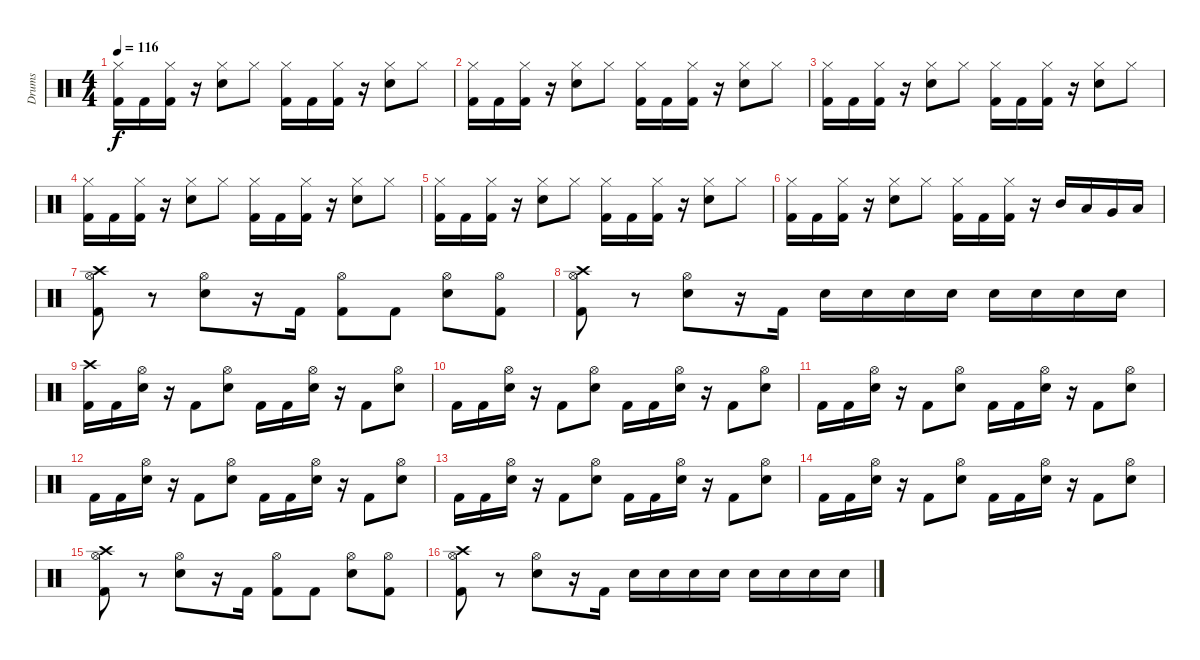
\track ("Drums" "Drums") {instrument percussion}
\staff {score}
\articulation defaults
\ts (4 4)
\tempo 116
\clef neutral
\ks c
("Hi-Hat (closed)" "Kick (hit) 2").16{dy f} "Kick (hit) 2".16 ("Hi-Hat (closed)" "Kick (hit) 2").16 r.16 ("Hi-Hat (closed)" "Snare (hit) 2").8 "Hi-Hat (closed)".8 ("Hi-Hat (closed)" "Kick (hit) 2").16 "Kick (hit) 2".16 ("Hi-Hat (closed)" "Kick (hit) 2").16 r.16 ("Hi-Hat (closed)" "Snare (hit) 2").8 "Hi-Hat (closed)".8 |
("Hi-Hat (closed)" "Kick (hit) 2").16 "Kick (hit) 2".16 ("Hi-Hat (closed)" "Kick (hit) 2").16 r.16 ("Hi-Hat (closed)" "Snare (hit) 2").8 "Hi-Hat (closed)".8 ("Hi-Hat (closed)" "Kick (hit) 2").16 "Kick (hit) 2".16 ("Hi-Hat (closed)" "Kick (hit) 2").16 r.16 ("Hi-Hat (closed)" "Snare (hit) 2").8 "Hi-Hat (closed)".8 |
("Hi-Hat (closed)" "Kick (hit) 2").16 "Kick (hit) 2".16 ("Hi-Hat (closed)" "Kick (hit) 2").16 r.16 ("Hi-Hat (closed)" "Snare (hit) 2").8 "Hi-Hat (closed)".8 ("Hi-Hat (closed)" "Kick (hit) 2").16 "Kick (hit) 2".16 ("Hi-Hat (closed)" "Kick (hit) 2").16 r.16 ("Hi-Hat (closed)" "Snare (hit) 2").8 "Hi-Hat (closed)".8 |
("Hi-Hat (closed)" "Kick (hit) 2").16 "Kick (hit) 2".16 ("Hi-Hat (closed)" "Kick (hit) 2").16 r.16 ("Hi-Hat (closed)" "Snare (hit) 2").8 "Hi-Hat (closed)".8 ("Hi-Hat (closed)" "Kick (hit) 2").16 "Kick (hit) 2".16 ("Hi-Hat (closed)" "Kick (hit) 2").16 r.16 ("Hi-Hat (closed)" "Snare (hit) 2").8 "Hi-Hat (closed)".8 |
("Hi-Hat (closed)" "Kick (hit) 2").16 "Kick (hit) 2".16 ("Hi-Hat (closed)" "Kick (hit) 2").16 r.16 ("Hi-Hat (closed)" "Snare (hit) 2").8 "Hi-Hat (closed)".8 ("Hi-Hat (closed)" "Kick (hit) 2").16 "Kick (hit) 2".16 ("Hi-Hat (closed)" "Kick (hit) 2").16 r.16 ("Hi-Hat (closed)" "Snare (hit) 2").8 "Hi-Hat (closed)".8 |
("Hi-Hat (closed)" "Kick (hit) 2").16 "Kick (hit) 2".16 ("Hi-Hat (closed)" "Kick (hit) 2").16 r.16 ("Hi-Hat (closed)" "Snare (hit) 2").8 "Hi-Hat (closed)".8 ("Hi-Hat (closed)" "Kick (hit) 2").16 "Kick (hit) 2".16 ("Hi-Hat (closed)" "Kick (hit) 2").16 r.16 "Mid Tom (hit)".16 "Low Tom (hit)".16 "Very Low Tom (hit)".16 "Low Floor Tom (hit)".16 |
("Crash high (hit)" "Hi-Hat (open)" "Kick (hit) 2").8 r.8 ("Hi-Hat (open)" "Snare (hit) 2").8 r.16 "Kick (hit) 2".16 ("Hi-Hat (open)" "Kick (hit) 2").8 "Kick (hit) 2".8 ("Hi-Hat (open)" "Snare (hit) 2").8 ("Hi-Hat (open)" "Kick (hit) 2").8 |
("Crash high (hit)" "Hi-Hat (open)" "Kick (hit) 2").8 r.8 ("Hi-Hat (open)" "Snare (hit) 2").8 r.16 "Kick (hit) 2".16 "Snare (hit) 2".16 "Snare (hit) 2".16 "Snare (hit) 2".16 "Snare (hit) 2".16 "Snare (hit) 2".16 "Snare (hit) 2".16 "Snare (hit) 2".16 "Snare (hit) 2".16 |
("Crash high (hit)" "Kick (hit) 2").16 "Kick (hit) 2".16 ("Hi-Hat (open)" "Snare (hit) 2").16 r.16 "Kick (hit) 2".8 ("Hi-Hat (open)" "Snare (hit) 2").8 "Kick (hit) 2".16 "Kick (hit) 2".16 ("Hi-Hat (open)" "Snare (hit) 2").16 r.16 "Kick (hit) 2".8 ("Hi-Hat (open)" "Snare (hit) 2").8 |
"Kick (hit) 2".16 "Kick (hit) 2".16 ("Hi-Hat (open)" "Snare (hit) 2").16 r.16 "Kick (hit) 2".8 ("Hi-Hat (open)" "Snare (hit) 2").8 "Kick (hit) 2".16 "Kick (hit) 2".16 ("Hi-Hat (open)" "Snare (hit) 2").16 r.16 "Kick (hit) 2".8 ("Hi-Hat (open)" "Snare (hit) 2").8 |
"Kick (hit) 2".16 "Kick (hit) 2".16 ("Hi-Hat (open)" "Snare (hit) 2").16 r.16 "Kick (hit) 2".8 ("Hi-Hat (open)" "Snare (hit) 2").8 "Kick (hit) 2".16 "Kick (hit) 2".16 ("Hi-Hat (open)" "Snare (hit) 2").16 r.16 "Kick (hit) 2".8 ("Hi-Hat (open)" "Snare (hit) 2").8 |
"Kick (hit) 2".16 "Kick (hit) 2".16 ("Hi-Hat (open)" "Snare (hit) 2").16 r.16 "Kick (hit) 2".8 ("Hi-Hat (open)" "Snare (hit) 2").8 "Kick (hit) 2".16 "Kick (hit) 2".16 ("Hi-Hat (open)" "Snare (hit) 2").16 r.16 "Kick (hit) 2".8 ("Hi-Hat (open)" "Snare (hit) 2").8 |
"Kick (hit) 2".16 "Kick (hit) 2".16 ("Hi-Hat (open)" "Snare (hit) 2").16 r.16 "Kick (hit) 2".8 ("Hi-Hat (open)" "Snare (hit) 2").8 "Kick (hit) 2".16 "Kick (hit) 2".16 ("Hi-Hat (open)" "Snare (hit) 2").16 r.16 "Kick (hit) 2".8 ("Hi-Hat (open)" "Snare (hit) 2").8 |
"Kick (hit) 2".16 "Kick (hit) 2".16 ("Hi-Hat (open)" "Snare (hit) 2").16 r.16 "Kick (hit) 2".8 ("Hi-Hat (open)" "Snare (hit) 2").8 "Kick (hit) 2".16 "Kick (hit) 2".16 ("Hi-Hat (open)" "Snare (hit) 2").16 r.16 "Kick (hit) 2".8 ("Hi-Hat (open)" "Snare (hit) 2").8 |
("Crash high (hit)" "Hi-Hat (open)" "Kick (hit) 2").8 r.8 ("Hi-Hat (open)" "Snare (hit) 2").8 r.16 "Kick (hit) 2".16 ("Hi-Hat (open)" "Kick (hit) 2").8 "Kick (hit) 2".8 ("Hi-Hat (open)" "Snare (hit) 2").8 ("Hi-Hat (open)" "Kick (hit) 2").8 |
("Crash high (hit)" "Hi-Hat (open)" "Kick (hit) 2").8 r.8 ("Hi-Hat (open)" "Snare (hit) 2").8 r.16 "Kick (hit) 2".16 "Snare (hit) 2".16 "Snare (hit) 2".16 "Snare (hit) 2".16 "Snare (hit) 2".16 "Snare (hit) 2".16 "Snare (hit) 2".16 "Snare (hit) 2".16 "Snare (hit) 2".16
